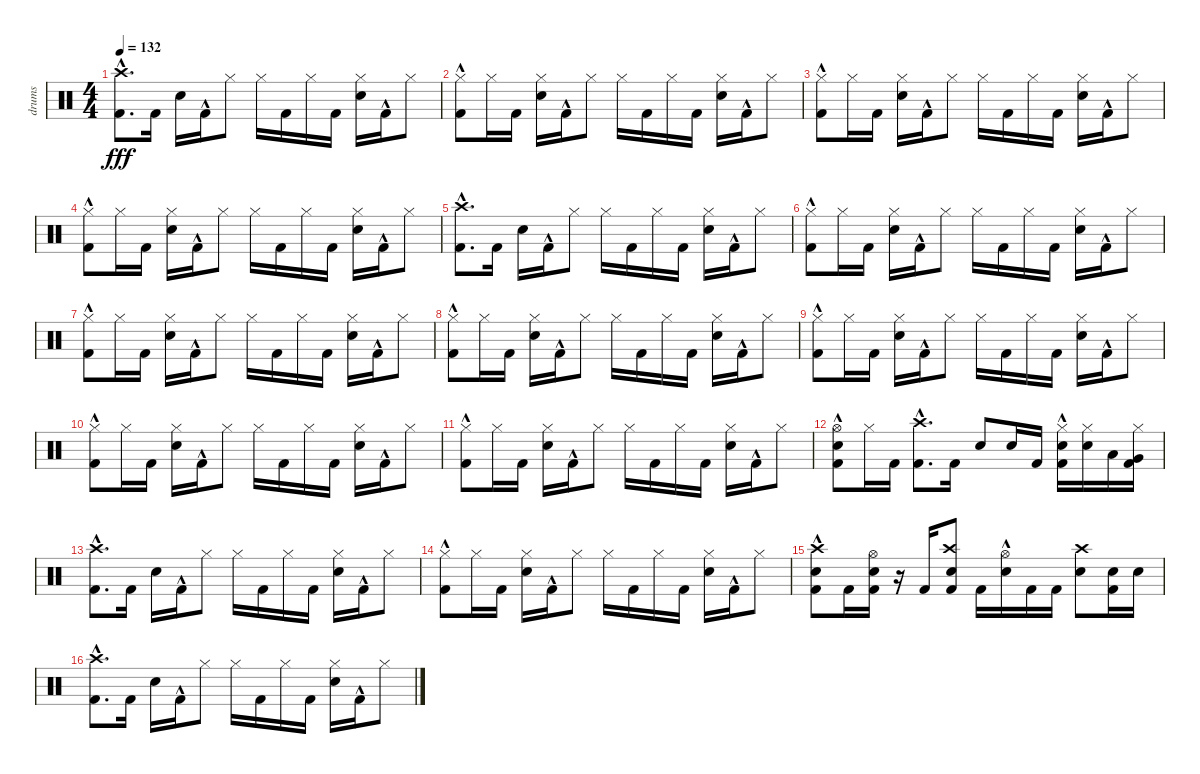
\track ("drums" "drums") {instrument percussion}
\staff {score}
\articulation defaults
\ts (4 4)
\tempo 132
\clef neutral
\ks c
("Kick (hit) 2"{hac} "Crash high (hit)").8{d dy fff} "Kick (hit) 2".16 "Snare (hit) 2".16 "Kick (hit) 2"{hac}.16 "Hi-Hat (closed)".8 "Hi-Hat (closed)".16 "Kick (hit) 2".16 "Hi-Hat (closed)".16 "Kick (hit) 2".16 ("Snare (hit) 2" "Hi-Hat (closed)").16 "Kick (hit) 2"{hac}.16 "Hi-Hat (closed)".8 |
("Kick (hit) 2"{hac} "Hi-Hat (closed)").8 "Hi-Hat (closed)".16 "Kick (hit) 2".16 ("Snare (hit) 2" "Hi-Hat (closed)").16 "Kick (hit) 2"{hac}.16 "Hi-Hat (closed)".8 "Hi-Hat (closed)".16 "Kick (hit) 2".16 "Hi-Hat (closed)".16 "Kick (hit) 2".16 ("Snare (hit) 2" "Hi-Hat (closed)").16 "Kick (hit) 2"{hac}.16 "Hi-Hat (closed)".8 |
("Kick (hit) 2"{hac} "Hi-Hat (closed)").8 "Hi-Hat (closed)".16 "Kick (hit) 2".16 ("Snare (hit) 2" "Hi-Hat (closed)").16 "Kick (hit) 2"{hac}.16 "Hi-Hat (closed)".8 "Hi-Hat (closed)".16 "Kick (hit) 2".16 "Hi-Hat (closed)".16 "Kick (hit) 2".16 ("Snare (hit) 2" "Hi-Hat (closed)").16 "Kick (hit) 2"{hac}.16 "Hi-Hat (closed)".8 |
("Kick (hit) 2"{hac} "Hi-Hat (closed)").8 "Hi-Hat (closed)".16 "Kick (hit) 2".16 ("Snare (hit) 2" "Hi-Hat (closed)").16 "Kick (hit) 2"{hac}.16 "Hi-Hat (closed)".8 "Hi-Hat (closed)".16 "Kick (hit) 2".16 "Hi-Hat (closed)".16 "Kick (hit) 2".16 ("Snare (hit) 2" "Hi-Hat (closed)").16 "Kick (hit) 2"{hac}.16 "Hi-Hat (closed)".8 |
("Kick (hit) 2"{hac} "Crash high (hit)").8{d} "Kick (hit) 2".16 "Snare (hit) 2".16 "Kick (hit) 2"{hac}.16 "Hi-Hat (closed)".8 "Hi-Hat (closed)".16 "Kick (hit) 2".16 "Hi-Hat (closed)".16 "Kick (hit) 2".16 ("Snare (hit) 2" "Hi-Hat (closed)").16 "Kick (hit) 2"{hac}.16 "Hi-Hat (closed)".8 |
("Kick (hit) 2"{hac} "Hi-Hat (closed)").8 "Hi-Hat (closed)".16 "Kick (hit) 2".16 ("Snare (hit) 2" "Hi-Hat (closed)").16 "Kick (hit) 2"{hac}.16 "Hi-Hat (closed)".8 "Hi-Hat (closed)".16 "Kick (hit) 2".16 "Hi-Hat (closed)".16 "Kick (hit) 2".16 ("Snare (hit) 2" "Hi-Hat (closed)").16 "Kick (hit) 2"{hac}.16 "Hi-Hat (closed)".8 |
("Kick (hit) 2"{hac} "Hi-Hat (closed)").8 "Hi-Hat (closed)".16 "Kick (hit) 2".16 ("Snare (hit) 2" "Hi-Hat (closed)").16 "Kick (hit) 2"{hac}.16 "Hi-Hat (closed)".8 "Hi-Hat (closed)".16 "Kick (hit) 2".16 "Hi-Hat (closed)".16 "Kick (hit) 2".16 ("Snare (hit) 2" "Hi-Hat (closed)").16 "Kick (hit) 2"{hac}.16 "Hi-Hat (closed)".8 |
("Kick (hit) 2"{hac} "Hi-Hat (closed)").8 "Hi-Hat (closed)".16 "Kick (hit) 2".16 ("Snare (hit) 2" "Hi-Hat (closed)").16 "Kick (hit) 2"{hac}.16 "Hi-Hat (closed)".8 "Hi-Hat (closed)".16 "Kick (hit) 2".16 "Hi-Hat (closed)".16 "Kick (hit) 2".16 ("Snare (hit) 2" "Hi-Hat (closed)").16 "Kick (hit) 2"{hac}.16 "Hi-Hat (closed)".8 |
("Kick (hit) 2"{hac} "Hi-Hat (closed)").8 "Hi-Hat (closed)".16 "Kick (hit) 2".16 ("Snare (hit) 2" "Hi-Hat (closed)").16 "Kick (hit) 2"{hac}.16 "Hi-Hat (closed)".8 "Hi-Hat (closed)".16 "Kick (hit) 2".16 "Hi-Hat (closed)".16 "Kick (hit) 2".16 ("Snare (hit) 2" "Hi-Hat (closed)").16 "Kick (hit) 2"{hac}.16 "Hi-Hat (closed)".8 |
("Kick (hit) 2"{hac} "Hi-Hat (closed)").8 "Hi-Hat (closed)".16 "Kick (hit) 2".16 ("Snare (hit) 2" "Hi-Hat (closed)").16 "Kick (hit) 2"{hac}.16 "Hi-Hat (closed)".8 "Hi-Hat (closed)".16 "Kick (hit) 2".16 "Hi-Hat (closed)".16 "Kick (hit) 2".16 ("Snare (hit) 2" "Hi-Hat (closed)").16 "Kick (hit) 2"{hac}.16 "Hi-Hat (closed)".8 |
("Kick (hit) 2"{hac} "Hi-Hat (closed)").8 "Hi-Hat (closed)".16 "Kick (hit) 2".16 ("Snare (hit) 2" "Hi-Hat (closed)").16 "Kick (hit) 2"{hac}.16 "Hi-Hat (closed)".8 "Hi-Hat (closed)".16 "Kick (hit) 2".16 "Hi-Hat (closed)".16 "Kick (hit) 2".16 ("Snare (hit) 2" "Hi-Hat (closed)").16 "Kick (hit) 2"{hac}.16 "Hi-Hat (closed)".8 |
("Kick (hit) 2"{hac} "Snare (hit) 2" "Hi-Hat (open)").8 "Hi-Hat (closed)".16 "Kick (hit) 2".16 ("Kick (hit) 2"{hac} "Crash high (hit)").8{d} "Kick (hit) 2".16 "Snare (hit) 2".8 "Snare (hit) 2".16 "Kick (hit) 2".16 ("Kick (hit) 2"{hac} "Snare (hit) 2" "Hi-Hat (closed)").16 ("Snare (hit) 2" "Hi-Hat (closed)").16 "Low Tom (hit)".16 ("Kick (hit) 2" "Very Low Tom (hit)" "Hi-Hat (closed)").16 |
("Kick (hit) 2"{hac} "Crash high (hit)").8{d} "Kick (hit) 2".16 "Snare (hit) 2".16 "Kick (hit) 2"{hac}.16 "Hi-Hat (closed)".8 "Hi-Hat (closed)".16 "Kick (hit) 2".16 "Hi-Hat (closed)".16 "Kick (hit) 2".16 ("Snare (hit) 2" "Hi-Hat (closed)").16 "Kick (hit) 2"{hac}.16 "Hi-Hat (closed)".8 |
("Kick (hit) 2"{hac} "Hi-Hat (closed)").8 "Hi-Hat (closed)".16 "Kick (hit) 2".16 ("Snare (hit) 2" "Hi-Hat (closed)").16 "Kick (hit) 2"{hac}.16 "Hi-Hat (closed)".8 "Hi-Hat (closed)".16 "Kick (hit) 2".16 "Hi-Hat (closed)".16 "Kick (hit) 2".16 ("Snare (hit) 2" "Hi-Hat (closed)").16 "Kick (hit) 2"{hac}.16 "Hi-Hat (closed)".8 |
("Snare (hit) 2"{hac} "Crash high (hit)"{hac} "Kick (hit) 2").8 "Kick (hit) 2".16 ("Snare (hit) 2" "Kick (hit) 2" "Hi-Hat (open)").16 r.16 "Kick (hit) 2".16 ("Crash high (hit)" "Snare (hit) 2" "Kick (hit) 2").8 "Kick (hit) 2".16 ("Snare (hit) 2"{hac} "Hi-Hat (open)"{hac}).16 "Kick (hit) 2".16 "Kick (hit) 2".16 ("Snare (hit) 2" "Crash high (hit)").8 ("Snare (hit) 2" "Kick (hit) 2").16 "Snare (hit) 2".16 |
("Kick (hit) 2"{hac} "Crash high (hit)").8{d} "Kick (hit) 2".16 "Snare (hit) 2".16 "Kick (hit) 2"{hac}.16 "Hi-Hat (closed)".8 "Hi-Hat (closed)".16 "Kick (hit) 2".16 "Hi-Hat (closed)".16 "Kick (hit) 2".16 ("Snare (hit) 2" "Hi-Hat (closed)").16 "Kick (hit) 2"{hac}.16 "Hi-Hat (closed)".8
